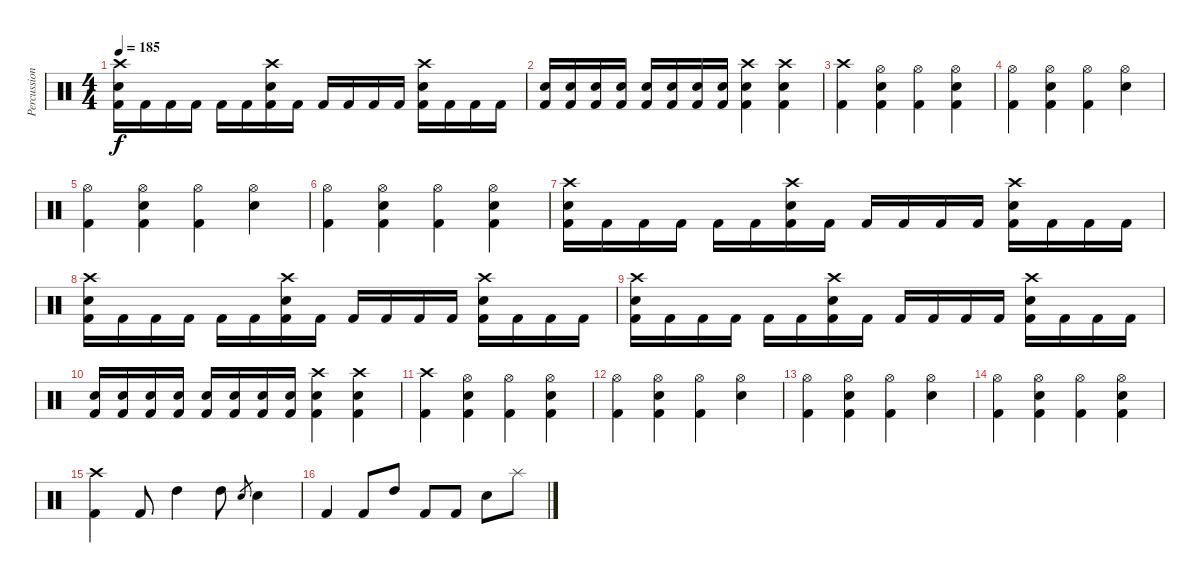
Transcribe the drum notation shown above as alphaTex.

\track ("Percussion" "Percussion") {instrument percussion}
\staff {score}
\articulation defaults
\ts (4 4)
\tempo 185
\clef neutral
\ks c
("Crash high (hit)" "Snare (hit) 2" "Kick (hit) 2").16{dy f} "Kick (hit) 2".16 "Kick (hit) 2".16 "Kick (hit) 2".16 "Kick (hit) 2".16 "Kick (hit) 2".16 ("Crash high (hit)" "Snare (hit) 2" "Kick (hit) 2").16 "Kick (hit) 2".16 "Kick (hit) 2".16 "Kick (hit) 2".16 "Kick (hit) 2".16 "Kick (hit) 2".16 ("Crash high (hit)" "Snare (hit) 2" "Kick (hit) 2").16 "Kick (hit) 2".16 "Kick (hit) 2".16 "Kick (hit) 2".16 |
("Snare (hit) 2" "Kick (hit) 2").16 ("Snare (hit) 2" "Kick (hit) 2").16 ("Snare (hit) 2" "Kick (hit) 2").16 ("Snare (hit) 2" "Kick (hit) 2").16 ("Snare (hit) 2" "Kick (hit) 2").16 ("Snare (hit) 2" "Kick (hit) 2").16 ("Snare (hit) 2" "Kick (hit) 2").16 ("Snare (hit) 2" "Kick (hit) 2").16 ("Crash high (hit)" "Snare (hit) 2" "Kick (hit) 2").4 ("Crash high (hit)" "Snare (hit) 2" "Kick (hit) 2").4 |
("Crash high (hit)" "Kick (hit) 2").4 ("Hi-Hat (open)" "Snare (hit) 2" "Kick (hit) 2").4 ("Hi-Hat (open)" "Kick (hit) 2").4 ("Hi-Hat (open)" "Snare (hit) 2" "Kick (hit) 2").4 |
("Hi-Hat (open)" "Kick (hit) 2").4 ("Hi-Hat (open)" "Snare (hit) 2" "Kick (hit) 2").4 ("Hi-Hat (open)" "Kick (hit) 2").4 ("Hi-Hat (open)" "Snare (hit) 2").4 |
("Hi-Hat (open)" "Kick (hit) 2").4 ("Hi-Hat (open)" "Snare (hit) 2" "Kick (hit) 2").4 ("Hi-Hat (open)" "Kick (hit) 2").4 ("Hi-Hat (open)" "Snare (hit) 2").4 |
("Hi-Hat (open)" "Kick (hit) 2").4 ("Hi-Hat (open)" "Snare (hit) 2" "Kick (hit) 2").4 ("Hi-Hat (open)" "Kick (hit) 2").4 ("Hi-Hat (open)" "Snare (hit) 2" "Kick (hit) 2").4 |
("Crash high (hit)" "Snare (hit) 2" "Kick (hit) 2").16 "Kick (hit) 2".16 "Kick (hit) 2".16 "Kick (hit) 2".16 "Kick (hit) 2".16 "Kick (hit) 2".16 ("Crash high (hit)" "Snare (hit) 2" "Kick (hit) 2").16 "Kick (hit) 2".16 "Kick (hit) 2".16 "Kick (hit) 2".16 "Kick (hit) 2".16 "Kick (hit) 2".16 ("Crash high (hit)" "Snare (hit) 2" "Kick (hit) 2").16 "Kick (hit) 2".16 "Kick (hit) 2".16 "Kick (hit) 2".16 |
("Crash high (hit)" "Snare (hit) 2" "Kick (hit) 2").16 "Kick (hit) 2".16 "Kick (hit) 2".16 "Kick (hit) 2".16 "Kick (hit) 2".16 "Kick (hit) 2".16 ("Crash high (hit)" "Snare (hit) 2" "Kick (hit) 2").16 "Kick (hit) 2".16 "Kick (hit) 2".16 "Kick (hit) 2".16 "Kick (hit) 2".16 "Kick (hit) 2".16 ("Crash high (hit)" "Snare (hit) 2" "Kick (hit) 2").16 "Kick (hit) 2".16 "Kick (hit) 2".16 "Kick (hit) 2".16 |
("Crash high (hit)" "Snare (hit) 2" "Kick (hit) 2").16 "Kick (hit) 2".16 "Kick (hit) 2".16 "Kick (hit) 2".16 "Kick (hit) 2".16 "Kick (hit) 2".16 ("Crash high (hit)" "Snare (hit) 2" "Kick (hit) 2").16 "Kick (hit) 2".16 "Kick (hit) 2".16 "Kick (hit) 2".16 "Kick (hit) 2".16 "Kick (hit) 2".16 ("Crash high (hit)" "Snare (hit) 2" "Kick (hit) 2").16 "Kick (hit) 2".16 "Kick (hit) 2".16 "Kick (hit) 2".16 |
("Snare (hit) 2" "Kick (hit) 2").16 ("Snare (hit) 2" "Kick (hit) 2").16 ("Snare (hit) 2" "Kick (hit) 2").16 ("Snare (hit) 2" "Kick (hit) 2").16 ("Snare (hit) 2" "Kick (hit) 2").16 ("Snare (hit) 2" "Kick (hit) 2").16 ("Snare (hit) 2" "Kick (hit) 2").16 ("Snare (hit) 2" "Kick (hit) 2").16 ("Crash high (hit)" "Snare (hit) 2" "Kick (hit) 2").4 ("Crash high (hit)" "Snare (hit) 2" "Kick (hit) 2").4 |
("Crash high (hit)" "Kick (hit) 2").4 ("Hi-Hat (open)" "Snare (hit) 2" "Kick (hit) 2").4 ("Hi-Hat (open)" "Kick (hit) 2").4 ("Hi-Hat (open)" "Snare (hit) 2" "Kick (hit) 2").4 |
("Hi-Hat (open)" "Kick (hit) 2").4 ("Hi-Hat (open)" "Snare (hit) 2" "Kick (hit) 2").4 ("Hi-Hat (open)" "Kick (hit) 2").4 ("Hi-Hat (open)" "Snare (hit) 2").4 |
("Hi-Hat (open)" "Kick (hit) 2").4 ("Hi-Hat (open)" "Snare (hit) 2" "Kick (hit) 2").4 ("Hi-Hat (open)" "Kick (hit) 2").4 ("Hi-Hat (open)" "Snare (hit) 2").4 |
("Hi-Hat (open)" "Kick (hit) 2").4 ("Hi-Hat (open)" "Snare (hit) 2" "Kick (hit) 2").4 ("Hi-Hat (open)" "Kick (hit) 2").4 ("Hi-Hat (open)" "Snare (hit) 2" "Kick (hit) 2").4 |
("Crash high (hit)" "Kick (hit) 2").4 "Kick (hit) 2".8 "High Tom (hit)".4 "High Tom (hit)".8 "Snare (hit) 2".8{gr} "Snare (hit) 2".4 |
"Kick (hit) 2".4 "Kick (hit) 2".8 "High Tom (hit)".8 "Kick (hit) 2".8 "Kick (hit) 2".8 "Snare (hit) 2".8 "Splash (hit)".8
